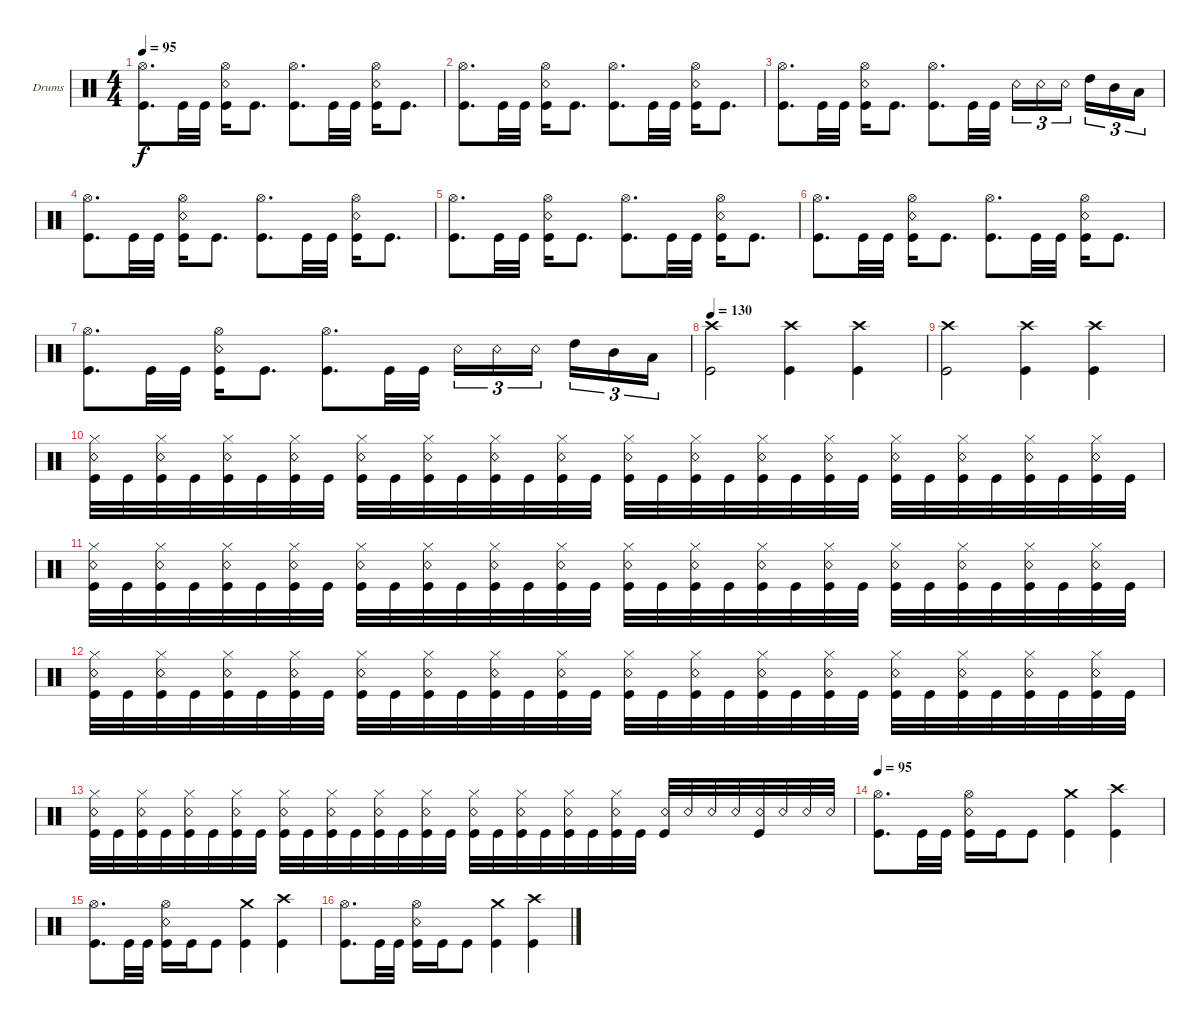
\defaultSystemsLayout 4
\bracketExtendMode groupsimilarinstruments
\firstSystemTrackNameOrientation horizontal
\otherSystemsTrackNameOrientation horizontal
\track ("Drumkit" "Drums") {instrument percussion}
\staff {score}
\articulation defaults
\ts (4 4)
\tempo 95
\clef neutral
\ks c
("Hi-Hat (open)" "Kick (hit)").8{d dy f} "Kick (hit)".32 "Kick (hit)".32 ("Kick (hit)" "Snare (rim shot)" "Hi-Hat (open)").16 "Kick (hit)".8{d} ("Hi-Hat (open)" "Kick (hit)").8{d} "Kick (hit)".32 "Kick (hit)".32 ("Kick (hit)" "Snare (rim shot)" "Hi-Hat (open)").16 "Kick (hit)".8{d} |
("Hi-Hat (open)" "Kick (hit)").8{d} "Kick (hit)".32 "Kick (hit)".32 ("Kick (hit)" "Snare (rim shot)" "Hi-Hat (open)").16 "Kick (hit)".8{d} ("Hi-Hat (open)" "Kick (hit)").8{d} "Kick (hit)".32 "Kick (hit)".32 ("Kick (hit)" "Snare (rim shot)" "Hi-Hat (open)").16 "Kick (hit)".8{d} |
("Hi-Hat (open)" "Kick (hit)").8{d} "Kick (hit)".32 "Kick (hit)".32 ("Kick (hit)" "Snare (rim shot)" "Hi-Hat (open)").16 "Kick (hit)".8{d} ("Hi-Hat (open)" "Kick (hit)").8{d} "Kick (hit)".32 "Kick (hit)".32 "Snare (rim shot)".16{tu (3 2)} "Snare (rim shot)".16{tu (3 2)} "Snare (rim shot)".16{tu (3 2)} "High Tom (hit)".16{tu (3 2)} "Mid Tom (hit)".16{tu (3 2)} "Low Tom (hit)".16{tu (3 2)} |
("Hi-Hat (open)" "Kick (hit)").8{d} "Kick (hit)".32 "Kick (hit)".32 ("Kick (hit)" "Snare (rim shot)" "Hi-Hat (open)").16 "Kick (hit)".8{d} ("Hi-Hat (open)" "Kick (hit)").8{d} "Kick (hit)".32 "Kick (hit)".32 ("Kick (hit)" "Snare (rim shot)" "Hi-Hat (open)").16 "Kick (hit)".8{d} |
("Hi-Hat (open)" "Kick (hit)").8{d} "Kick (hit)".32 "Kick (hit)".32 ("Kick (hit)" "Snare (rim shot)" "Hi-Hat (open)").16 "Kick (hit)".8{d} ("Hi-Hat (open)" "Kick (hit)").8{d} "Kick (hit)".32 "Kick (hit)".32 ("Kick (hit)" "Snare (rim shot)" "Hi-Hat (open)").16 "Kick (hit)".8{d} |
("Hi-Hat (open)" "Kick (hit)").8{d} "Kick (hit)".32 "Kick (hit)".32 ("Kick (hit)" "Snare (rim shot)" "Hi-Hat (open)").16 "Kick (hit)".8{d} ("Hi-Hat (open)" "Kick (hit)").8{d} "Kick (hit)".32 "Kick (hit)".32 ("Kick (hit)" "Snare (rim shot)" "Hi-Hat (open)").16 "Kick (hit)".8{d} |
("Hi-Hat (open)" "Kick (hit)").8{d} "Kick (hit)".32 "Kick (hit)".32 ("Kick (hit)" "Snare (rim shot)" "Hi-Hat (open)").16 "Kick (hit)".8{d} ("Hi-Hat (open)" "Kick (hit)").8{d} "Kick (hit)".32 "Kick (hit)".32 "Snare (rim shot)".16{tu (3 2)} "Snare (rim shot)".16{tu (3 2)} "Snare (rim shot)".16{tu (3 2)} "High Tom (hit)".16{tu (3 2)} "Mid Tom (hit)".16{tu (3 2)} "Low Tom (hit)".16{tu (3 2)} |
\tempo 130
("Kick (hit)" "Crash high (hit)").2 ("Kick (hit)" "Crash high (hit)").4 ("Kick (hit)" "Crash high (hit)").4 |
("Kick (hit)" "Crash high (hit)").2 ("Kick (hit)" "Crash high (hit)").4 ("Kick (hit)" "Crash high (hit)").4 |
("Kick (hit)" "Snare (rim shot)" "Hi-Hat (closed)").32 "Kick (hit)".32 ("Kick (hit)" "Snare (rim shot)" "Hi-Hat (closed)").32 "Kick (hit)".32 ("Kick (hit)" "Snare (rim shot)" "Hi-Hat (closed)").32 "Kick (hit)".32 ("Kick (hit)" "Snare (rim shot)" "Hi-Hat (closed)").32 "Kick (hit)".32 ("Kick (hit)" "Snare (rim shot)" "Hi-Hat (closed)").32 "Kick (hit)".32 ("Kick (hit)" "Snare (rim shot)" "Hi-Hat (closed)").32 "Kick (hit)".32 ("Kick (hit)" "Snare (rim shot)" "Hi-Hat (closed)").32 "Kick (hit)".32 ("Kick (hit)" "Snare (rim shot)" "Hi-Hat (closed)").32 "Kick (hit)".32 ("Kick (hit)" "Snare (rim shot)" "Hi-Hat (closed)").32 "Kick (hit)".32 ("Kick (hit)" "Snare (rim shot)" "Hi-Hat (closed)").32 "Kick (hit)".32 ("Kick (hit)" "Snare (rim shot)" "Hi-Hat (closed)").32 "Kick (hit)".32 ("Kick (hit)" "Snare (rim shot)" "Hi-Hat (closed)").32 "Kick (hit)".32 ("Kick (hit)" "Snare (rim shot)" "Hi-Hat (closed)").32 "Kick (hit)".32 ("Kick (hit)" "Snare (rim shot)" "Hi-Hat (closed)").32 "Kick (hit)".32 ("Kick (hit)" "Snare (rim shot)" "Hi-Hat (closed)").32 "Kick (hit)".32 ("Kick (hit)" "Snare (rim shot)" "Hi-Hat (closed)").32 "Kick (hit)".32 |
("Kick (hit)" "Snare (rim shot)" "Hi-Hat (closed)").32 "Kick (hit)".32 ("Kick (hit)" "Snare (rim shot)" "Hi-Hat (closed)").32 "Kick (hit)".32 ("Kick (hit)" "Snare (rim shot)" "Hi-Hat (closed)").32 "Kick (hit)".32 ("Kick (hit)" "Snare (rim shot)" "Hi-Hat (closed)").32 "Kick (hit)".32 ("Kick (hit)" "Snare (rim shot)" "Hi-Hat (closed)").32 "Kick (hit)".32 ("Kick (hit)" "Snare (rim shot)" "Hi-Hat (closed)").32 "Kick (hit)".32 ("Kick (hit)" "Snare (rim shot)" "Hi-Hat (closed)").32 "Kick (hit)".32 ("Kick (hit)" "Snare (rim shot)" "Hi-Hat (closed)").32 "Kick (hit)".32 ("Kick (hit)" "Snare (rim shot)" "Hi-Hat (closed)").32 "Kick (hit)".32 ("Kick (hit)" "Snare (rim shot)" "Hi-Hat (closed)").32 "Kick (hit)".32 ("Kick (hit)" "Snare (rim shot)" "Hi-Hat (closed)").32 "Kick (hit)".32 ("Kick (hit)" "Snare (rim shot)" "Hi-Hat (closed)").32 "Kick (hit)".32 ("Kick (hit)" "Snare (rim shot)" "Hi-Hat (closed)").32 "Kick (hit)".32 ("Kick (hit)" "Snare (rim shot)" "Hi-Hat (closed)").32 "Kick (hit)".32 ("Kick (hit)" "Snare (rim shot)" "Hi-Hat (closed)").32 "Kick (hit)".32 ("Kick (hit)" "Snare (rim shot)" "Hi-Hat (closed)").32 "Kick (hit)".32 |
("Kick (hit)" "Snare (rim shot)" "Hi-Hat (closed)").32 "Kick (hit)".32 ("Kick (hit)" "Snare (rim shot)" "Hi-Hat (closed)").32 "Kick (hit)".32 ("Kick (hit)" "Snare (rim shot)" "Hi-Hat (closed)").32 "Kick (hit)".32 ("Kick (hit)" "Snare (rim shot)" "Hi-Hat (closed)").32 "Kick (hit)".32 ("Kick (hit)" "Snare (rim shot)" "Hi-Hat (closed)").32 "Kick (hit)".32 ("Kick (hit)" "Snare (rim shot)" "Hi-Hat (closed)").32 "Kick (hit)".32 ("Kick (hit)" "Snare (rim shot)" "Hi-Hat (closed)").32 "Kick (hit)".32 ("Kick (hit)" "Snare (rim shot)" "Hi-Hat (closed)").32 "Kick (hit)".32 ("Kick (hit)" "Snare (rim shot)" "Hi-Hat (closed)").32 "Kick (hit)".32 ("Kick (hit)" "Snare (rim shot)" "Hi-Hat (closed)").32 "Kick (hit)".32 ("Kick (hit)" "Snare (rim shot)" "Hi-Hat (closed)").32 "Kick (hit)".32 ("Kick (hit)" "Snare (rim shot)" "Hi-Hat (closed)").32 "Kick (hit)".32 ("Kick (hit)" "Snare (rim shot)" "Hi-Hat (closed)").32 "Kick (hit)".32 ("Kick (hit)" "Snare (rim shot)" "Hi-Hat (closed)").32 "Kick (hit)".32 ("Kick (hit)" "Snare (rim shot)" "Hi-Hat (closed)").32 "Kick (hit)".32 ("Kick (hit)" "Snare (rim shot)" "Hi-Hat (closed)").32 "Kick (hit)".32 |
("Kick (hit)" "Snare (rim shot)" "Hi-Hat (closed)").32 "Kick (hit)".32 ("Kick (hit)" "Snare (rim shot)" "Hi-Hat (closed)").32 "Kick (hit)".32 ("Kick (hit)" "Snare (rim shot)" "Hi-Hat (closed)").32 "Kick (hit)".32 ("Kick (hit)" "Snare (rim shot)" "Hi-Hat (closed)").32 "Kick (hit)".32 ("Kick (hit)" "Snare (rim shot)" "Hi-Hat (closed)").32 "Kick (hit)".32 ("Kick (hit)" "Snare (rim shot)" "Hi-Hat (closed)").32 "Kick (hit)".32 ("Kick (hit)" "Snare (rim shot)" "Hi-Hat (closed)").32 "Kick (hit)".32 ("Kick (hit)" "Snare (rim shot)" "Hi-Hat (closed)").32 "Kick (hit)".32 ("Kick (hit)" "Snare (rim shot)" "Hi-Hat (closed)").32 "Kick (hit)".32 ("Kick (hit)" "Snare (rim shot)" "Hi-Hat (closed)").32 "Kick (hit)".32 ("Kick (hit)" "Snare (rim shot)" "Hi-Hat (closed)").32 "Kick (hit)".32 ("Kick (hit)" "Snare (rim shot)" "Hi-Hat (closed)").32 "Kick (hit)".32 ("Snare (rim shot)" "Kick (hit)").32 "Snare (rim shot)".32 "Snare (rim shot)".32 "Snare (rim shot)".32 ("Snare (rim shot)" "Kick (hit)").32 "Snare (rim shot)".32 "Snare (rim shot)".32 "Snare (rim shot)".32 |
\tempo 95
("Hi-Hat (open)" "Kick (hit)").8{d} "Kick (hit)".32 "Kick (hit)".32 ("Kick (hit)" "Snare (rim shot)" "Hi-Hat (open)").16 "Kick (hit)".16 "Kick (hit)".8 ("Kick (hit)" "Crash medium (hit)").4 ("Kick (hit)" "Crash high (hit)").4 |
("Hi-Hat (open)" "Kick (hit)").8{d} "Kick (hit)".32 "Kick (hit)".32 ("Kick (hit)" "Snare (rim shot)" "Hi-Hat (open)").16 "Kick (hit)".16 "Kick (hit)".8 ("Kick (hit)" "Crash medium (hit)").4 ("Kick (hit)" "Crash high (hit)").4 |
("Hi-Hat (open)" "Kick (hit)").8{d} "Kick (hit)".32 "Kick (hit)".32 ("Kick (hit)" "Snare (rim shot)" "Hi-Hat (open)").16 "Kick (hit)".16 "Kick (hit)".8 ("Kick (hit)" "Crash medium (hit)").4 ("Kick (hit)" "Crash high (hit)").4
